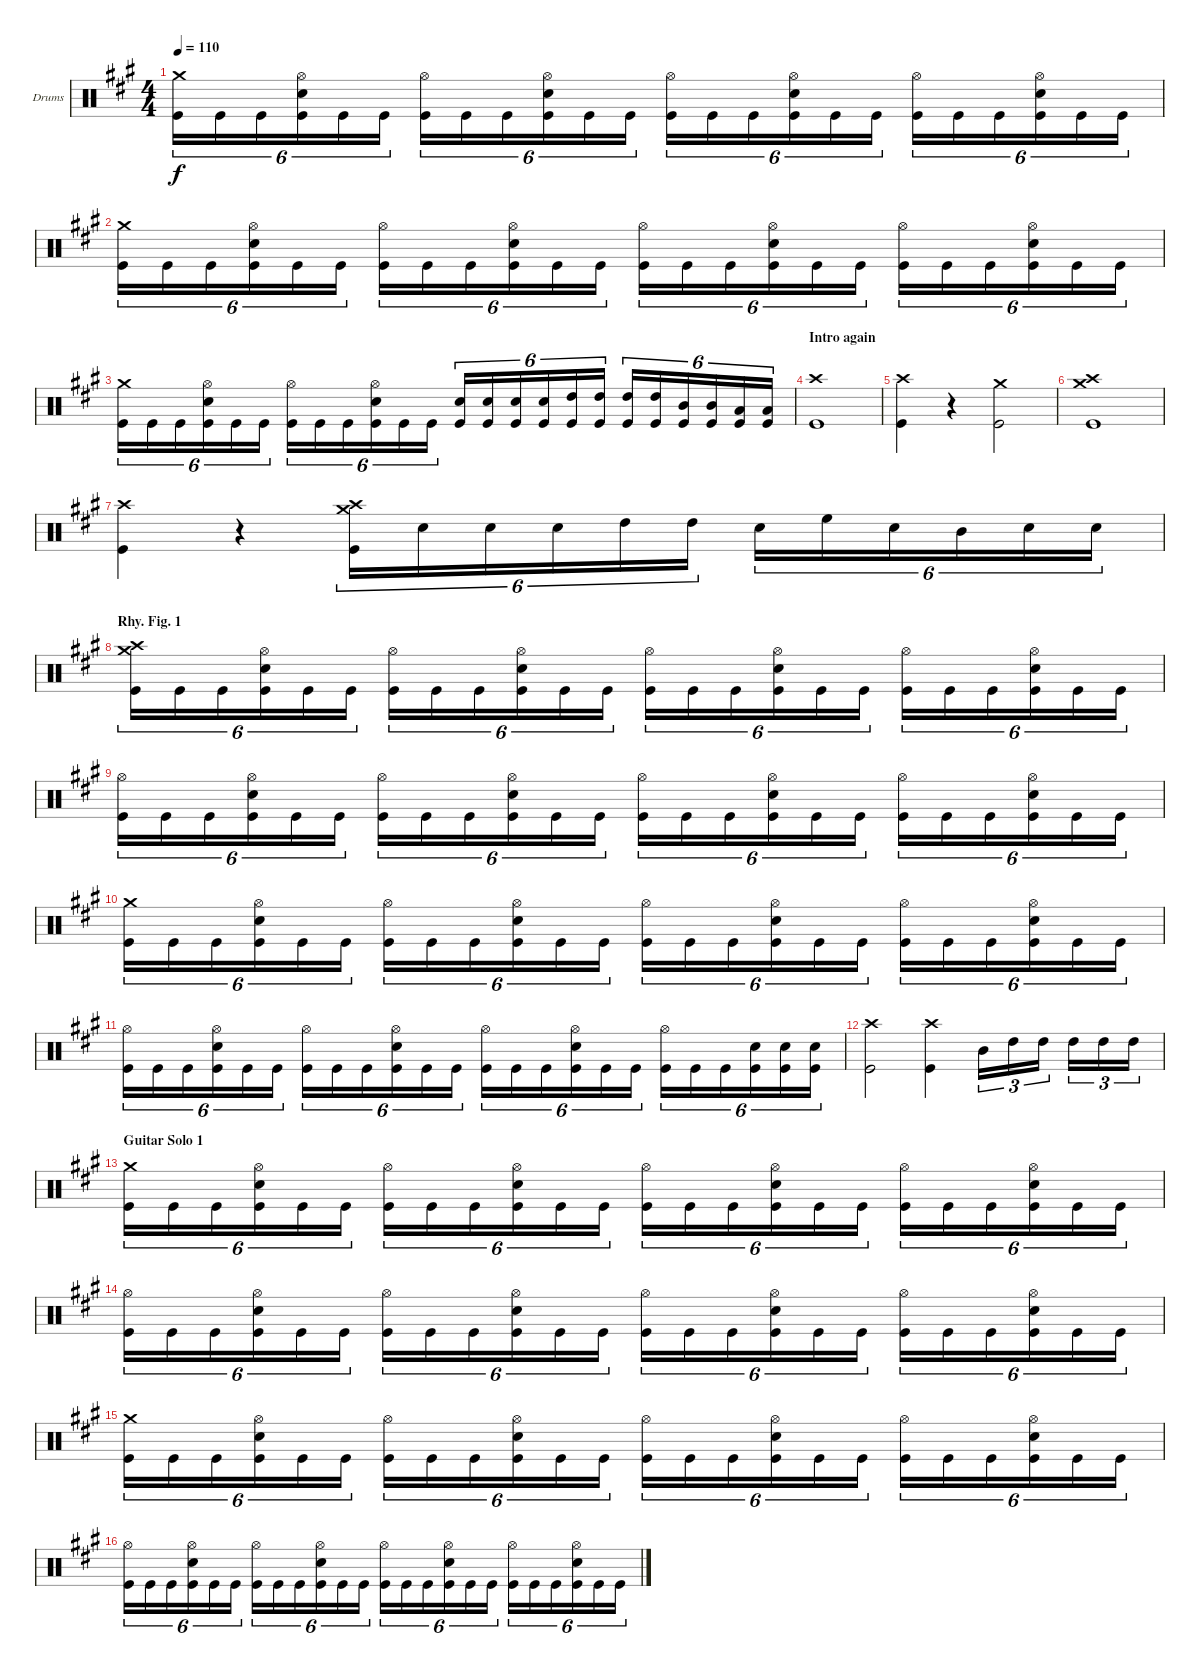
\bracketExtendMode groupsimilarinstruments
\firstSystemTrackNameOrientation horizontal
\otherSystemsTrackNameOrientation horizontal
\track ("Drumkit" "Drums") {instrument percussion}
\staff {score}
\articulation defaults
\ts (4 4)
\tempo 110
\clef neutral
\ks a
("Kick (hit)" "Crash medium (hit)").16{tu (6 4) dy f} "Kick (hit)".16{tu (6 4)} "Kick (hit)".16{tu (6 4)} ("Snare (hit) 2" "Kick (hit)" "Hi-Hat (open)").16{tu (6 4)} "Kick (hit)".16{tu (6 4)} "Kick (hit)".16{tu (6 4)} ("Kick (hit)" "Hi-Hat (open)").16{tu (6 4)} "Kick (hit)".16{tu (6 4)} "Kick (hit)".16{tu (6 4)} ("Snare (hit) 2" "Kick (hit)" "Hi-Hat (open)").16{tu (6 4)} "Kick (hit)".16{tu (6 4)} "Kick (hit)".16{tu (6 4)} ("Kick (hit)" "Hi-Hat (open)").16{tu (6 4)} "Kick (hit)".16{tu (6 4)} "Kick (hit)".16{tu (6 4)} ("Snare (hit) 2" "Kick (hit)" "Hi-Hat (open)").16{tu (6 4)} "Kick (hit)".16{tu (6 4)} "Kick (hit)".16{tu (6 4)} ("Kick (hit)" "Hi-Hat (open)").16{tu (6 4)} "Kick (hit)".16{tu (6 4)} "Kick (hit)".16{tu (6 4)} ("Snare (hit) 2" "Kick (hit)" "Hi-Hat (open)").16{tu (6 4)} "Kick (hit)".16{tu (6 4)} "Kick (hit)".16{tu (6 4)} |
("Kick (hit)" "Crash medium (hit)").16{tu (6 4)} "Kick (hit)".16{tu (6 4)} "Kick (hit)".16{tu (6 4)} ("Snare (hit) 2" "Kick (hit)" "Hi-Hat (open)").16{tu (6 4)} "Kick (hit)".16{tu (6 4)} "Kick (hit)".16{tu (6 4)} ("Kick (hit)" "Hi-Hat (open)").16{tu (6 4)} "Kick (hit)".16{tu (6 4)} "Kick (hit)".16{tu (6 4)} ("Snare (hit) 2" "Kick (hit)" "Hi-Hat (open)").16{tu (6 4)} "Kick (hit)".16{tu (6 4)} "Kick (hit)".16{tu (6 4)} ("Kick (hit)" "Hi-Hat (open)").16{tu (6 4)} "Kick (hit)".16{tu (6 4)} "Kick (hit)".16{tu (6 4)} ("Snare (hit) 2" "Kick (hit)" "Hi-Hat (open)").16{tu (6 4)} "Kick (hit)".16{tu (6 4)} "Kick (hit)".16{tu (6 4)} ("Kick (hit)" "Hi-Hat (open)").16{tu (6 4)} "Kick (hit)".16{tu (6 4)} "Kick (hit)".16{tu (6 4)} ("Snare (hit) 2" "Kick (hit)" "Hi-Hat (open)").16{tu (6 4)} "Kick (hit)".16{tu (6 4)} "Kick (hit)".16{tu (6 4)} |
("Kick (hit)" "Crash medium (hit)").16{tu (6 4)} "Kick (hit)".16{tu (6 4)} "Kick (hit)".16{tu (6 4)} ("Snare (hit) 2" "Kick (hit)" "Hi-Hat (open)").16{tu (6 4)} "Kick (hit)".16{tu (6 4)} "Kick (hit)".16{tu (6 4)} ("Kick (hit)" "Hi-Hat (open)").16{tu (6 4)} "Kick (hit)".16{tu (6 4)} "Kick (hit)".16{tu (6 4)} ("Snare (hit) 2" "Kick (hit)" "Hi-Hat (open)").16{tu (6 4)} "Kick (hit)".16{tu (6 4)} "Kick (hit)".16{tu (6 4)} ("Kick (hit)" "Snare (hit) 2").16{tu (6 4)} ("Kick (hit)" "Snare (hit) 2").16{tu (6 4)} ("Kick (hit)" "Snare (hit) 2").16{tu (6 4)} ("Kick (hit)" "Snare (hit) 2").16{tu (6 4)} ("Kick (hit)" "High Tom (hit)").16{tu (6 4)} ("Kick (hit)" "High Tom (hit)").16{tu (6 4)} ("Kick (hit)" "High Tom (hit)").16{tu (6 4)} ("Kick (hit)" "High Tom (hit)").16{tu (6 4)} ("Kick (hit)" "Mid Tom (hit)").16{tu (6 4)} ("Kick (hit)" "Mid Tom (hit)").16{tu (6 4)} ("Kick (hit)" "Low Tom (hit)").16{tu (6 4)} ("Kick (hit)" "Low Tom (hit)").16{tu (6 4)} |
\section ("" "Intro again")
("Crash high (hit)" "Kick (hit)").1 |
("Crash high (hit)" "Kick (hit)").4 r.4 ("Crash medium (hit)" "Kick (hit)").2 |
("Crash medium (hit)" "Crash high (hit)" "Kick (hit)").1 |
("Crash high (hit)" "Kick (hit)").4 r.4 ("Crash medium (hit)" "Crash high (hit)" "Kick (hit)").16{tu (6 4)} "Snare (hit) 2".16{tu (6 4)} "Snare (hit) 2".16{tu (6 4)} "Snare (hit) 2".16{tu (6 4)} "High Tom (hit)".16{tu (6 4)} "High Tom (hit)".16{tu (6 4)} "Snare (hit) 2".16{tu (6 4)} "High Floor Tom (hit)".16{tu (6 4)} "Snare (hit) 2".16{tu (6 4)} "Mid Tom (hit)".16{tu (6 4)} "Snare (hit) 2".16{tu (6 4)} "Snare (hit) 2".16{tu (6 4)} |
\section ("" "Rhy. Fig. 1")
("Crash high (hit)" "Kick (hit)" "Crash medium (hit)").16{tu (6 4)} "Kick (hit)".16{tu (6 4)} "Kick (hit)".16{tu (6 4)} ("Snare (hit) 2" "Kick (hit)" "Hi-Hat (open)").16{tu (6 4)} "Kick (hit)".16{tu (6 4)} "Kick (hit)".16{tu (6 4)} ("Kick (hit)" "Hi-Hat (open)").16{tu (6 4)} "Kick (hit)".16{tu (6 4)} "Kick (hit)".16{tu (6 4)} ("Snare (hit) 2" "Kick (hit)" "Hi-Hat (open)").16{tu (6 4)} "Kick (hit)".16{tu (6 4)} "Kick (hit)".16{tu (6 4)} ("Kick (hit)" "Hi-Hat (open)").16{tu (6 4)} "Kick (hit)".16{tu (6 4)} "Kick (hit)".16{tu (6 4)} ("Snare (hit) 2" "Kick (hit)" "Hi-Hat (open)").16{tu (6 4)} "Kick (hit)".16{tu (6 4)} "Kick (hit)".16{tu (6 4)} ("Kick (hit)" "Hi-Hat (open)").16{tu (6 4)} "Kick (hit)".16{tu (6 4)} "Kick (hit)".16{tu (6 4)} ("Snare (hit) 2" "Kick (hit)" "Hi-Hat (open)").16{tu (6 4)} "Kick (hit)".16{tu (6 4)} "Kick (hit)".16{tu (6 4)} |
("Kick (hit)" "Hi-Hat (open)").16{tu (6 4)} "Kick (hit)".16{tu (6 4)} "Kick (hit)".16{tu (6 4)} ("Snare (hit) 2" "Kick (hit)" "Hi-Hat (open)").16{tu (6 4)} "Kick (hit)".16{tu (6 4)} "Kick (hit)".16{tu (6 4)} ("Kick (hit)" "Hi-Hat (open)").16{tu (6 4)} "Kick (hit)".16{tu (6 4)} "Kick (hit)".16{tu (6 4)} ("Snare (hit) 2" "Kick (hit)" "Hi-Hat (open)").16{tu (6 4)} "Kick (hit)".16{tu (6 4)} "Kick (hit)".16{tu (6 4)} ("Kick (hit)" "Hi-Hat (open)").16{tu (6 4)} "Kick (hit)".16{tu (6 4)} "Kick (hit)".16{tu (6 4)} ("Snare (hit) 2" "Kick (hit)" "Hi-Hat (open)").16{tu (6 4)} "Kick (hit)".16{tu (6 4)} "Kick (hit)".16{tu (6 4)} ("Kick (hit)" "Hi-Hat (open)").16{tu (6 4)} "Kick (hit)".16{tu (6 4)} "Kick (hit)".16{tu (6 4)} ("Snare (hit) 2" "Kick (hit)" "Hi-Hat (open)").16{tu (6 4)} "Kick (hit)".16{tu (6 4)} "Kick (hit)".16{tu (6 4)} |
("Kick (hit)" "Crash medium (hit)").16{tu (6 4)} "Kick (hit)".16{tu (6 4)} "Kick (hit)".16{tu (6 4)} ("Snare (hit) 2" "Kick (hit)" "Hi-Hat (open)").16{tu (6 4)} "Kick (hit)".16{tu (6 4)} "Kick (hit)".16{tu (6 4)} ("Kick (hit)" "Hi-Hat (open)").16{tu (6 4)} "Kick (hit)".16{tu (6 4)} "Kick (hit)".16{tu (6 4)} ("Snare (hit) 2" "Kick (hit)" "Hi-Hat (open)").16{tu (6 4)} "Kick (hit)".16{tu (6 4)} "Kick (hit)".16{tu (6 4)} ("Kick (hit)" "Hi-Hat (open)").16{tu (6 4)} "Kick (hit)".16{tu (6 4)} "Kick (hit)".16{tu (6 4)} ("Snare (hit) 2" "Kick (hit)" "Hi-Hat (open)").16{tu (6 4)} "Kick (hit)".16{tu (6 4)} "Kick (hit)".16{tu (6 4)} ("Kick (hit)" "Hi-Hat (open)").16{tu (6 4)} "Kick (hit)".16{tu (6 4)} "Kick (hit)".16{tu (6 4)} ("Snare (hit) 2" "Kick (hit)" "Hi-Hat (open)").16{tu (6 4)} "Kick (hit)".16{tu (6 4)} "Kick (hit)".16{tu (6 4)} |
("Kick (hit)" "Hi-Hat (open)").16{tu (6 4)} "Kick (hit)".16{tu (6 4)} "Kick (hit)".16{tu (6 4)} ("Snare (hit) 2" "Kick (hit)" "Hi-Hat (open)").16{tu (6 4)} "Kick (hit)".16{tu (6 4)} "Kick (hit)".16{tu (6 4)} ("Kick (hit)" "Hi-Hat (open)").16{tu (6 4)} "Kick (hit)".16{tu (6 4)} "Kick (hit)".16{tu (6 4)} ("Snare (hit) 2" "Kick (hit)" "Hi-Hat (open)").16{tu (6 4)} "Kick (hit)".16{tu (6 4)} "Kick (hit)".16{tu (6 4)} ("Kick (hit)" "Hi-Hat (open)").16{tu (6 4)} "Kick (hit)".16{tu (6 4)} "Kick (hit)".16{tu (6 4)} ("Snare (hit) 2" "Kick (hit)" "Hi-Hat (open)").16{tu (6 4)} "Kick (hit)".16{tu (6 4)} "Kick (hit)".16{tu (6 4)} ("Kick (hit)" "Hi-Hat (open)").16{tu (6 4)} "Kick (hit)".16{tu (6 4)} "Kick (hit)".16{tu (6 4)} ("Snare (hit) 2" "Kick (hit)").16{tu (6 4)} ("Kick (hit)" "Snare (hit) 2").16{tu (6 4)} ("Kick (hit)" "Snare (hit) 2").16{tu (6 4)} |
("Kick (hit)" "Crash high (hit)").2 ("Kick (hit)" "Crash high (hit)").4 "Mid Tom (hit)".16{tu (3 2)} "High Tom (hit)".16{tu (3 2)} "High Tom (hit)".16{tu (3 2)} "High Tom (hit)".16{tu (3 2)} "High Tom (hit)".16{tu (3 2)} "High Tom (hit)".16{tu (3 2)} |
\section ("" "Guitar Solo 1")
("Kick (hit)" "Crash medium (hit)").16{tu (6 4)} "Kick (hit)".16{tu (6 4)} "Kick (hit)".16{tu (6 4)} ("Snare (hit) 2" "Kick (hit)" "Hi-Hat (open)").16{tu (6 4)} "Kick (hit)".16{tu (6 4)} "Kick (hit)".16{tu (6 4)} ("Kick (hit)" "Hi-Hat (open)").16{tu (6 4)} "Kick (hit)".16{tu (6 4)} "Kick (hit)".16{tu (6 4)} ("Snare (hit) 2" "Kick (hit)" "Hi-Hat (open)").16{tu (6 4)} "Kick (hit)".16{tu (6 4)} "Kick (hit)".16{tu (6 4)} ("Kick (hit)" "Hi-Hat (open)").16{tu (6 4)} "Kick (hit)".16{tu (6 4)} "Kick (hit)".16{tu (6 4)} ("Snare (hit) 2" "Kick (hit)" "Hi-Hat (open)").16{tu (6 4)} "Kick (hit)".16{tu (6 4)} "Kick (hit)".16{tu (6 4)} ("Kick (hit)" "Hi-Hat (open)").16{tu (6 4)} "Kick (hit)".16{tu (6 4)} "Kick (hit)".16{tu (6 4)} ("Snare (hit) 2" "Kick (hit)" "Hi-Hat (open)").16{tu (6 4)} "Kick (hit)".16{tu (6 4)} "Kick (hit)".16{tu (6 4)} |
("Kick (hit)" "Hi-Hat (open)").16{tu (6 4)} "Kick (hit)".16{tu (6 4)} "Kick (hit)".16{tu (6 4)} ("Snare (hit) 2" "Kick (hit)" "Hi-Hat (open)").16{tu (6 4)} "Kick (hit)".16{tu (6 4)} "Kick (hit)".16{tu (6 4)} ("Kick (hit)" "Hi-Hat (open)").16{tu (6 4)} "Kick (hit)".16{tu (6 4)} "Kick (hit)".16{tu (6 4)} ("Snare (hit) 2" "Kick (hit)" "Hi-Hat (open)").16{tu (6 4)} "Kick (hit)".16{tu (6 4)} "Kick (hit)".16{tu (6 4)} ("Kick (hit)" "Hi-Hat (open)").16{tu (6 4)} "Kick (hit)".16{tu (6 4)} "Kick (hit)".16{tu (6 4)} ("Snare (hit) 2" "Kick (hit)" "Hi-Hat (open)").16{tu (6 4)} "Kick (hit)".16{tu (6 4)} "Kick (hit)".16{tu (6 4)} ("Kick (hit)" "Hi-Hat (open)").16{tu (6 4)} "Kick (hit)".16{tu (6 4)} "Kick (hit)".16{tu (6 4)} ("Snare (hit) 2" "Kick (hit)" "Hi-Hat (open)").16{tu (6 4)} "Kick (hit)".16{tu (6 4)} "Kick (hit)".16{tu (6 4)} |
("Kick (hit)" "Crash medium (hit)").16{tu (6 4)} "Kick (hit)".16{tu (6 4)} "Kick (hit)".16{tu (6 4)} ("Snare (hit) 2" "Kick (hit)" "Hi-Hat (open)").16{tu (6 4)} "Kick (hit)".16{tu (6 4)} "Kick (hit)".16{tu (6 4)} ("Kick (hit)" "Hi-Hat (open)").16{tu (6 4)} "Kick (hit)".16{tu (6 4)} "Kick (hit)".16{tu (6 4)} ("Snare (hit) 2" "Kick (hit)" "Hi-Hat (open)").16{tu (6 4)} "Kick (hit)".16{tu (6 4)} "Kick (hit)".16{tu (6 4)} ("Kick (hit)" "Hi-Hat (open)").16{tu (6 4)} "Kick (hit)".16{tu (6 4)} "Kick (hit)".16{tu (6 4)} ("Snare (hit) 2" "Kick (hit)" "Hi-Hat (open)").16{tu (6 4)} "Kick (hit)".16{tu (6 4)} "Kick (hit)".16{tu (6 4)} ("Kick (hit)" "Hi-Hat (open)").16{tu (6 4)} "Kick (hit)".16{tu (6 4)} "Kick (hit)".16{tu (6 4)} ("Snare (hit) 2" "Kick (hit)" "Hi-Hat (open)").16{tu (6 4)} "Kick (hit)".16{tu (6 4)} "Kick (hit)".16{tu (6 4)} |
("Kick (hit)" "Hi-Hat (open)").16{tu (6 4)} "Kick (hit)".16{tu (6 4)} "Kick (hit)".16{tu (6 4)} ("Snare (hit) 2" "Kick (hit)" "Hi-Hat (open)").16{tu (6 4)} "Kick (hit)".16{tu (6 4)} "Kick (hit)".16{tu (6 4)} ("Kick (hit)" "Hi-Hat (open)").16{tu (6 4)} "Kick (hit)".16{tu (6 4)} "Kick (hit)".16{tu (6 4)} ("Snare (hit) 2" "Kick (hit)" "Hi-Hat (open)").16{tu (6 4)} "Kick (hit)".16{tu (6 4)} "Kick (hit)".16{tu (6 4)} ("Kick (hit)" "Hi-Hat (open)").16{tu (6 4)} "Kick (hit)".16{tu (6 4)} "Kick (hit)".16{tu (6 4)} ("Snare (hit) 2" "Kick (hit)" "Hi-Hat (open)").16{tu (6 4)} "Kick (hit)".16{tu (6 4)} "Kick (hit)".16{tu (6 4)} ("Kick (hit)" "Hi-Hat (open)").16{tu (6 4)} "Kick (hit)".16{tu (6 4)} "Kick (hit)".16{tu (6 4)} ("Snare (hit) 2" "Kick (hit)" "Hi-Hat (open)").16{tu (6 4)} "Kick (hit)".16{tu (6 4)} "Kick (hit)".16{tu (6 4)}
